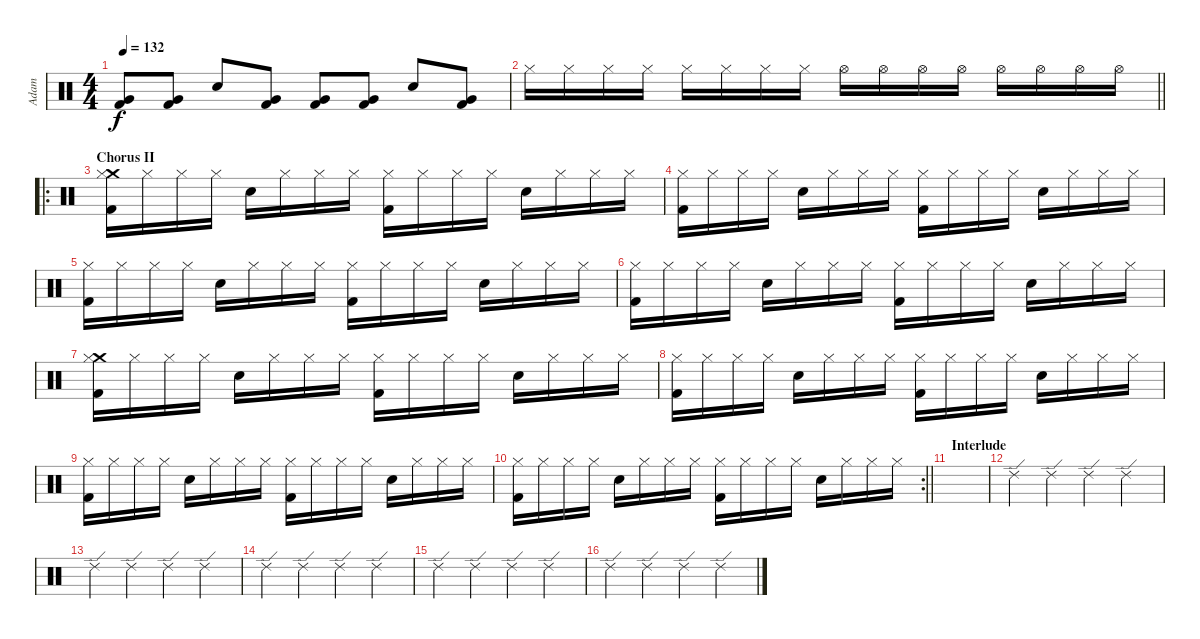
\track ("Adam" "Adam") {instrument percussion}
\staff {score}
\articulation defaults
\ts (4 4)
\tempo 132
\clef neutral
\ks c
("Very Low Tom (hit)" "Kick (hit) 2").8{dy f} ("Very Low Tom (hit)" "Kick (hit) 2").8 "Snare (hit) 2".8 ("Very Low Tom (hit)" "Kick (hit) 2").8 ("Very Low Tom (hit)" "Kick (hit) 2").8 ("Very Low Tom (hit)" "Kick (hit) 2").8 "Snare (hit) 2".8 ("Very Low Tom (hit)" "Kick (hit) 2").8 |
\barLineRight lightlight "Hi-Hat (closed)".16 "Hi-Hat (closed)".16 "Hi-Hat (closed)".16 "Hi-Hat (closed)".16 "Hi-Hat (closed)".16 "Hi-Hat (closed)".16 "Hi-Hat (closed)".16 "Hi-Hat (closed)".16 "Hi-Hat (open)".16 "Hi-Hat (open)".16 "Hi-Hat (open)".16 "Hi-Hat (open)".16 "Hi-Hat (open)".16 "Hi-Hat (open)".16 "Hi-Hat (open)".16 "Hi-Hat (open)".16
|
\ro
\section ("" "Chorus II")
("Crash medium (hit)" "Hi-Hat (closed)" "Kick (hit) 2").16 "Hi-Hat (closed)".16 "Hi-Hat (closed)".16 "Hi-Hat (closed)".16 "Snare (hit) 2".16 "Hi-Hat (closed)".16 "Hi-Hat (closed)".16 "Hi-Hat (closed)".16 ("Hi-Hat (closed)" "Kick (hit) 2").16 "Hi-Hat (closed)".16 "Hi-Hat (closed)".16 "Hi-Hat (closed)".16 "Snare (hit) 2".16 "Hi-Hat (closed)".16 "Hi-Hat (closed)".16 "Hi-Hat (closed)".16 |
("Hi-Hat (closed)" "Kick (hit) 2").16 "Hi-Hat (closed)".16 "Hi-Hat (closed)".16 "Hi-Hat (closed)".16 "Snare (hit) 2".16 "Hi-Hat (closed)".16 "Hi-Hat (closed)".16 "Hi-Hat (closed)".16 ("Hi-Hat (closed)" "Kick (hit) 2").16 "Hi-Hat (closed)".16 "Hi-Hat (closed)".16 "Hi-Hat (closed)".16 "Snare (hit) 2".16 "Hi-Hat (closed)".16 "Hi-Hat (closed)".16 "Hi-Hat (closed)".16 |
("Hi-Hat (closed)" "Kick (hit) 2").16 "Hi-Hat (closed)".16 "Hi-Hat (closed)".16 "Hi-Hat (closed)".16 "Snare (hit) 2".16 "Hi-Hat (closed)".16 "Hi-Hat (closed)".16 "Hi-Hat (closed)".16 ("Hi-Hat (closed)" "Kick (hit) 2").16 "Hi-Hat (closed)".16 "Hi-Hat (closed)".16 "Hi-Hat (closed)".16 "Snare (hit) 2".16 "Hi-Hat (closed)".16 "Hi-Hat (closed)".16 "Hi-Hat (closed)".16 |
("Hi-Hat (closed)" "Kick (hit) 2").16 "Hi-Hat (closed)".16 "Hi-Hat (closed)".16 "Hi-Hat (closed)".16 "Snare (hit) 2".16 "Hi-Hat (closed)".16 "Hi-Hat (closed)".16 "Hi-Hat (closed)".16 ("Hi-Hat (closed)" "Kick (hit) 2").16 "Hi-Hat (closed)".16 "Hi-Hat (closed)".16 "Hi-Hat (closed)".16 "Snare (hit) 2".16 "Hi-Hat (closed)".16 "Hi-Hat (closed)".16 "Hi-Hat (closed)".16 |
("Crash medium (hit)" "Hi-Hat (closed)" "Kick (hit) 2").16 "Hi-Hat (closed)".16 "Hi-Hat (closed)".16 "Hi-Hat (closed)".16 "Snare (hit) 2".16 "Hi-Hat (closed)".16 "Hi-Hat (closed)".16 "Hi-Hat (closed)".16 ("Hi-Hat (closed)" "Kick (hit) 2").16 "Hi-Hat (closed)".16 "Hi-Hat (closed)".16 "Hi-Hat (closed)".16 "Snare (hit) 2".16 "Hi-Hat (closed)".16 "Hi-Hat (closed)".16 "Hi-Hat (closed)".16 |
("Hi-Hat (closed)" "Kick (hit) 2").16 "Hi-Hat (closed)".16 "Hi-Hat (closed)".16 "Hi-Hat (closed)".16 "Snare (hit) 2".16 "Hi-Hat (closed)".16 "Hi-Hat (closed)".16 "Hi-Hat (closed)".16 ("Hi-Hat (closed)" "Kick (hit) 2").16 "Hi-Hat (closed)".16 "Hi-Hat (closed)".16 "Hi-Hat (closed)".16 "Snare (hit) 2".16 "Hi-Hat (closed)".16 "Hi-Hat (closed)".16 "Hi-Hat (closed)".16 |
("Hi-Hat (closed)" "Kick (hit) 2").16 "Hi-Hat (closed)".16 "Hi-Hat (closed)".16 "Hi-Hat (closed)".16 "Snare (hit) 2".16 "Hi-Hat (closed)".16 "Hi-Hat (closed)".16 "Hi-Hat (closed)".16 ("Hi-Hat (closed)" "Kick (hit) 2").16 "Hi-Hat (closed)".16 "Hi-Hat (closed)".16 "Hi-Hat (closed)".16 "Snare (hit) 2".16 "Hi-Hat (closed)".16 "Hi-Hat (closed)".16 "Hi-Hat (closed)".16 |
\rc 2
\barLineRight lightlight
("Hi-Hat (closed)" "Kick (hit) 2").16 "Hi-Hat (closed)".16 "Hi-Hat (closed)".16 "Hi-Hat (closed)".16 "Snare (hit) 2".16 "Hi-Hat (closed)".16 "Hi-Hat (closed)".16 "Hi-Hat (closed)".16 ("Hi-Hat (closed)" "Kick (hit) 2").16 "Hi-Hat (closed)".16 "Hi-Hat (closed)".16 "Hi-Hat (closed)".16 "Snare (hit) 2".16 "Hi-Hat (closed)".16 "Hi-Hat (closed)".16 "Hi-Hat (closed)".16 |
\section ("" "Interlude")
|
"Ride (edge) 2".4 "Ride (edge) 2".4 "Ride (edge) 2".4 "Ride (edge) 2".4 |
"Ride (edge) 2".4 "Ride (edge) 2".4 "Ride (edge) 2".4 "Ride (edge) 2".4 |
"Ride (edge) 2".4 "Ride (edge) 2".4 "Ride (edge) 2".4 "Ride (edge) 2".4 |
"Ride (edge) 2".4 "Ride (edge) 2".4 "Ride (edge) 2".4 "Ride (edge) 2".4 |
"Ride (edge) 2".4 "Ride (edge) 2".4 "Ride (edge) 2".4 "Ride (edge) 2".4
